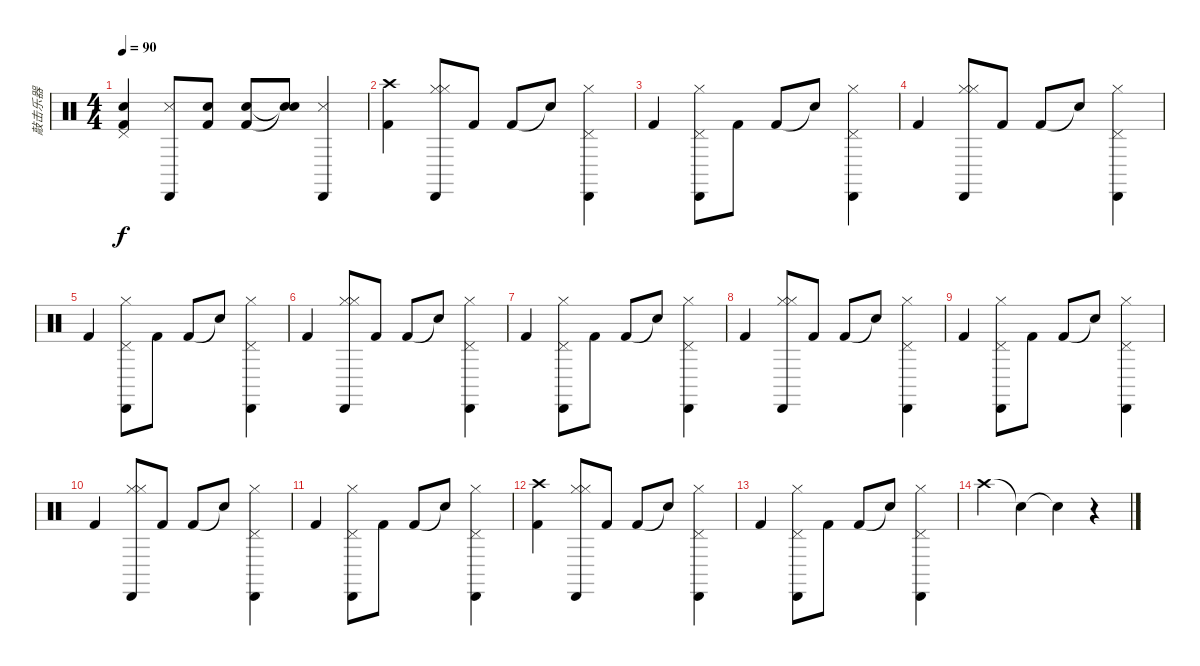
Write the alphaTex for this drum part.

\track ("敲击乐器" "敲击乐器") {instrument percussion}
\staff {score}
\articulation defaults
\ts (4 4)
\tempo 90
\clef neutral
\ks c
("Snare (hit) 2" "Pedal Hi-Hat (hit)" "Kick (hit) 2").4{dy f} ("Snare (side stick) 3" "Cabasa (hit)").8 ("Snare (hit) 2" "Kick (hit) 2").8 ("Snare (hit) 2" "Kick (hit) 2").8 ("Snare (hit)"{t} "Snare (hit)"{t}).8 ("Snare (side stick) 3" "Cabasa (hit)").4 |
("Crash high (hit)" "Kick (hit) 2").4 ("Hi-Hat (closed)" "Cabasa (hit)" "Hi-Hat (closed)").8 "Kick (hit) 2".8 "Kick (hit) 2".8 "Snare (hit)"{t}.8 ("Hi-Hat (closed)" "Cabasa (hit)" "Pedal Hi-Hat (hit)").4 |
"Kick (hit) 2".4 ("Hi-Hat (closed)" "Cabasa (hit)" "Pedal Hi-Hat (hit)").8 "Kick (hit) 2".8 "Kick (hit) 2".8 "Snare (hit)"{t}.8 ("Hi-Hat (closed)" "Cabasa (hit)" "Pedal Hi-Hat (hit)").4 |
"Kick (hit) 2".4 ("Hi-Hat (closed)" "Cabasa (hit)" "Hi-Hat (closed)").8 "Kick (hit) 2".8 "Kick (hit) 2".8 "Snare (hit)"{t}.8 ("Hi-Hat (closed)" "Cabasa (hit)" "Pedal Hi-Hat (hit)").4 |
"Kick (hit) 2".4 ("Hi-Hat (closed)" "Cabasa (hit)" "Pedal Hi-Hat (hit)").8 "Kick (hit) 2".8 "Kick (hit) 2".8 "Snare (hit)"{t}.8 ("Hi-Hat (closed)" "Cabasa (hit)" "Pedal Hi-Hat (hit)").4 |
"Kick (hit) 2".4 ("Hi-Hat (closed)" "Cabasa (hit)" "Hi-Hat (closed)").8 "Kick (hit) 2".8 "Kick (hit) 2".8 "Snare (hit)"{t}.8 ("Hi-Hat (closed)" "Cabasa (hit)" "Pedal Hi-Hat (hit)").4 |
"Kick (hit) 2".4 ("Hi-Hat (closed)" "Cabasa (hit)" "Pedal Hi-Hat (hit)").8 "Kick (hit) 2".8 "Kick (hit) 2".8 "Snare (hit)"{t}.8 ("Hi-Hat (closed)" "Cabasa (hit)" "Pedal Hi-Hat (hit)").4 |
"Kick (hit) 2".4 ("Hi-Hat (closed)" "Cabasa (hit)" "Hi-Hat (closed)").8 "Kick (hit) 2".8 "Kick (hit) 2".8 "Snare (hit)"{t}.8 ("Hi-Hat (closed)" "Cabasa (hit)" "Pedal Hi-Hat (hit)").4 |
"Kick (hit) 2".4 ("Hi-Hat (closed)" "Cabasa (hit)" "Pedal Hi-Hat (hit)").8 "Kick (hit) 2".8 "Kick (hit) 2".8 "Snare (hit)"{t}.8 ("Hi-Hat (closed)" "Cabasa (hit)" "Pedal Hi-Hat (hit)").4 |
"Kick (hit) 2".4 ("Hi-Hat (closed)" "Cabasa (hit)" "Hi-Hat (closed)").8 "Kick (hit) 2".8 "Kick (hit) 2".8 "Snare (hit)"{t}.8 ("Hi-Hat (closed)" "Cabasa (hit)" "Pedal Hi-Hat (hit)").4 |
"Kick (hit) 2".4 ("Hi-Hat (closed)" "Cabasa (hit)" "Pedal Hi-Hat (hit)").8 "Kick (hit) 2".8 "Kick (hit) 2".8 "Snare (hit)"{t}.8 ("Hi-Hat (closed)" "Cabasa (hit)" "Pedal Hi-Hat (hit)").4 |
("Crash high (hit)" "Kick (hit) 2").4 ("Hi-Hat (closed)" "Cabasa (hit)" "Hi-Hat (closed)").8 "Kick (hit) 2".8 "Kick (hit) 2".8 "Snare (hit)"{t}.8 ("Hi-Hat (closed)" "Cabasa (hit)" "Pedal Hi-Hat (hit)").4 |
"Kick (hit) 2".4 ("Hi-Hat (closed)" "Cabasa (hit)" "Pedal Hi-Hat (hit)").8 "Kick (hit) 2".8 "Kick (hit) 2".8 "Snare (hit)"{t}.8 ("Hi-Hat (closed)" "Cabasa (hit)" "Pedal Hi-Hat (hit)").4 |
"Crash high (hit)".4 "Snare (hit)"{t}.4 "Snare (hit)"{t}.4 r.4
